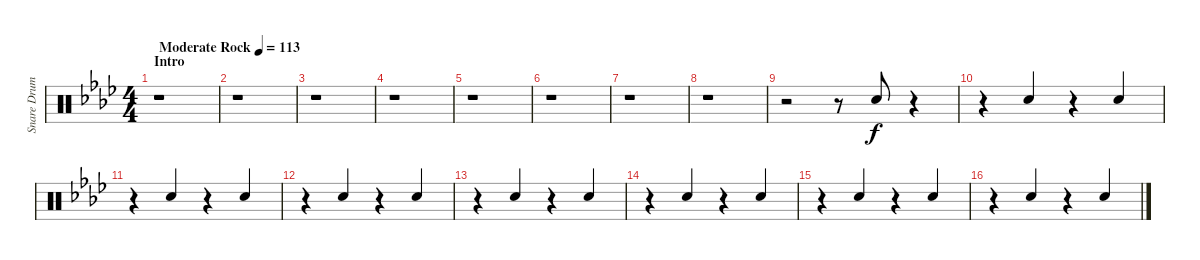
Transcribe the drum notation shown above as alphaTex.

\track ("Snare Drum - reverb" "Snare Drum") {instrument percussion}
\staff {score}
\articulation defaults
\ts (4 4)
\section ("" "Intro")
\tempo (113 "Moderate Rock")
\clef neutral
\ks fminor
r.1{dy f} |
r.1 |
r.1 |
r.1 |
r.1 |
r.1 |
r.1 |
r.1 |
r.2 r.8 "Snare (hit) 2".8{beam Up} r.4 |
r.4 "Snare (hit) 2".4{beam Up} r.4 "Snare (hit) 2".4{beam Up} |
r.4 "Snare (hit) 2".4{beam Up} r.4 "Snare (hit) 2".4{beam Up} |
r.4 "Snare (hit) 2".4{beam Up} r.4 "Snare (hit) 2".4{beam Up} |
r.4 "Snare (hit) 2".4{beam Up} r.4 "Snare (hit) 2".4{beam Up} |
r.4 "Snare (hit) 2".4{beam Up} r.4 "Snare (hit) 2".4{beam Up} |
r.4 "Snare (hit) 2".4{beam Up} r.4 "Snare (hit) 2".4{beam Up} |
r.4 "Snare (hit) 2".4{beam Up} r.4 "Snare (hit) 2".4{beam Up}
